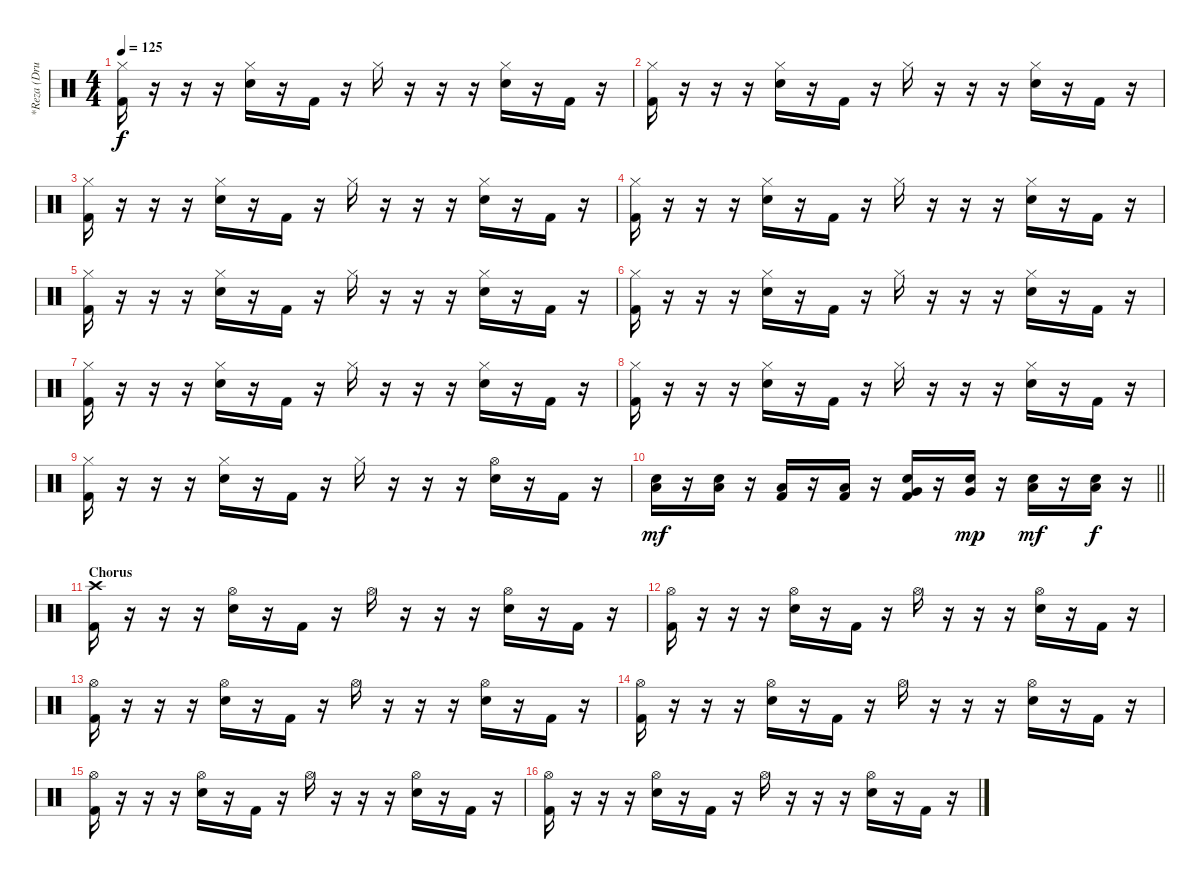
\track ("*Reza (Drum)" "*Reza (Dru") {instrument percussion}
\staff {score}
\articulation defaults
\ts (4 4)
\tempo 125
\clef neutral
\ks c
("Hi-Hat (closed)" "Kick (hit) 2").16{dy f} r.16 r.16 r.16 ("Hi-Hat (closed)" "Electric Snare (hit)").16 r.16 "Kick (hit) 2".16 r.16 "Hi-Hat (closed)".16 r.16 r.16 r.16 ("Hi-Hat (closed)" "Electric Snare (hit)").16 r.16 "Kick (hit) 2".16 r.16 |
("Hi-Hat (closed)" "Kick (hit) 2").16 r.16 r.16 r.16 ("Hi-Hat (closed)" "Electric Snare (hit)").16 r.16 "Kick (hit) 2".16 r.16 "Hi-Hat (closed)".16 r.16 r.16 r.16 ("Hi-Hat (closed)" "Electric Snare (hit)").16 r.16 "Kick (hit) 2".16 r.16 |
("Hi-Hat (closed)" "Kick (hit) 2").16 r.16 r.16 r.16 ("Hi-Hat (closed)" "Electric Snare (hit)").16 r.16 "Kick (hit) 2".16 r.16 "Hi-Hat (closed)".16 r.16 r.16 r.16 ("Hi-Hat (closed)" "Electric Snare (hit)").16 r.16 "Kick (hit) 2".16 r.16 |
("Hi-Hat (closed)" "Kick (hit) 2").16 r.16 r.16 r.16 ("Hi-Hat (closed)" "Electric Snare (hit)").16 r.16 "Kick (hit) 2".16 r.16 "Hi-Hat (closed)".16 r.16 r.16 r.16 ("Hi-Hat (closed)" "Electric Snare (hit)").16 r.16 "Kick (hit) 2".16 r.16 |
("Hi-Hat (closed)" "Kick (hit) 2").16 r.16 r.16 r.16 ("Hi-Hat (closed)" "Electric Snare (hit)").16 r.16 "Kick (hit) 2".16 r.16 "Hi-Hat (closed)".16 r.16 r.16 r.16 ("Hi-Hat (closed)" "Electric Snare (hit)").16 r.16 "Kick (hit) 2".16 r.16 |
("Hi-Hat (closed)" "Kick (hit) 2").16 r.16 r.16 r.16 ("Hi-Hat (closed)" "Electric Snare (hit)").16 r.16 "Kick (hit) 2".16 r.16 "Hi-Hat (closed)".16 r.16 r.16 r.16 ("Hi-Hat (closed)" "Electric Snare (hit)").16 r.16 "Kick (hit) 2".16 r.16 |
("Hi-Hat (closed)" "Kick (hit) 2").16 r.16 r.16 r.16 ("Hi-Hat (closed)" "Electric Snare (hit)").16 r.16 "Kick (hit) 2".16 r.16 "Hi-Hat (closed)".16 r.16 r.16 r.16 ("Hi-Hat (closed)" "Electric Snare (hit)").16 r.16 "Kick (hit) 2".16 r.16 |
("Hi-Hat (closed)" "Kick (hit) 2").16 r.16 r.16 r.16 ("Hi-Hat (closed)" "Electric Snare (hit)").16 r.16 "Kick (hit) 2".16 r.16 "Hi-Hat (closed)".16 r.16 r.16 r.16 ("Hi-Hat (closed)" "Electric Snare (hit)").16 r.16 "Kick (hit) 2".16 r.16 |
("Hi-Hat (closed)" "Kick (hit) 2").16 r.16 r.16 r.16 ("Hi-Hat (closed)" "Electric Snare (hit)").16 r.16 "Kick (hit) 2".16 r.16 "Hi-Hat (closed)".16 r.16 r.16 r.16 ("Hi-Hat (open)" "Electric Snare (hit)").16 r.16 "Kick (hit) 2".16 r.16 |
\barLineRight lightlight
("Electric Snare (hit)" "Low Floor Tom (hit)").16{dy mf} r.16 ("Electric Snare (hit)" "Low Floor Tom (hit)").16 r.16 ("Low Tom (hit)" "Kick (hit) 2").16 r.16 ("Low Tom (hit)" "Kick (hit) 2").16 r.16 ("Electric Snare (hit)" "Very Low Tom (hit)" "Kick (hit) 2").16 r.16 ("Electric Snare (hit)" "Very Low Tom (hit)").16{dy mp} r.16 ("Electric Snare (hit)" "Low Floor Tom (hit)").16{dy mf} r.16 ("Electric Snare (hit)" "Low Floor Tom (hit)").16{dy f} r.16 |
\section ("" "Chorus")
("Crash high (hit)" "Kick (hit) 2").16 r.16 r.16 r.16 ("Hi-Hat (open)" "Electric Snare (hit)").16 r.16 "Kick (hit) 2".16 r.16 "Hi-Hat (open)".16 r.16 r.16 r.16 ("Hi-Hat (open)" "Electric Snare (hit)").16 r.16 "Kick (hit) 2".16 r.16 |
("Hi-Hat (open)" "Kick (hit) 2").16 r.16 r.16 r.16 ("Hi-Hat (open)" "Electric Snare (hit)").16 r.16 "Kick (hit) 2".16 r.16 "Hi-Hat (open)".16 r.16 r.16 r.16 ("Hi-Hat (open)" "Electric Snare (hit)").16 r.16 "Kick (hit) 2".16 r.16 |
("Hi-Hat (open)" "Kick (hit) 2").16 r.16 r.16 r.16 ("Hi-Hat (open)" "Electric Snare (hit)").16 r.16 "Kick (hit) 2".16 r.16 "Hi-Hat (open)".16 r.16 r.16 r.16 ("Hi-Hat (open)" "Electric Snare (hit)").16 r.16 "Kick (hit) 2".16 r.16 |
("Hi-Hat (open)" "Kick (hit) 2").16 r.16 r.16 r.16 ("Hi-Hat (open)" "Electric Snare (hit)").16 r.16 "Kick (hit) 2".16 r.16 "Hi-Hat (open)".16 r.16 r.16 r.16 ("Hi-Hat (open)" "Electric Snare (hit)").16 r.16 "Kick (hit) 2".16 r.16 |
("Hi-Hat (open)" "Kick (hit) 2").16 r.16 r.16 r.16 ("Hi-Hat (open)" "Electric Snare (hit)").16 r.16 "Kick (hit) 2".16 r.16 "Hi-Hat (open)".16 r.16 r.16 r.16 ("Hi-Hat (open)" "Electric Snare (hit)").16 r.16 "Kick (hit) 2".16 r.16 |
("Hi-Hat (open)" "Kick (hit) 2").16 r.16 r.16 r.16 ("Hi-Hat (open)" "Electric Snare (hit)").16 r.16 "Kick (hit) 2".16 r.16 "Hi-Hat (open)".16 r.16 r.16 r.16 ("Hi-Hat (open)" "Electric Snare (hit)").16 r.16 "Kick (hit) 2".16 r.16
